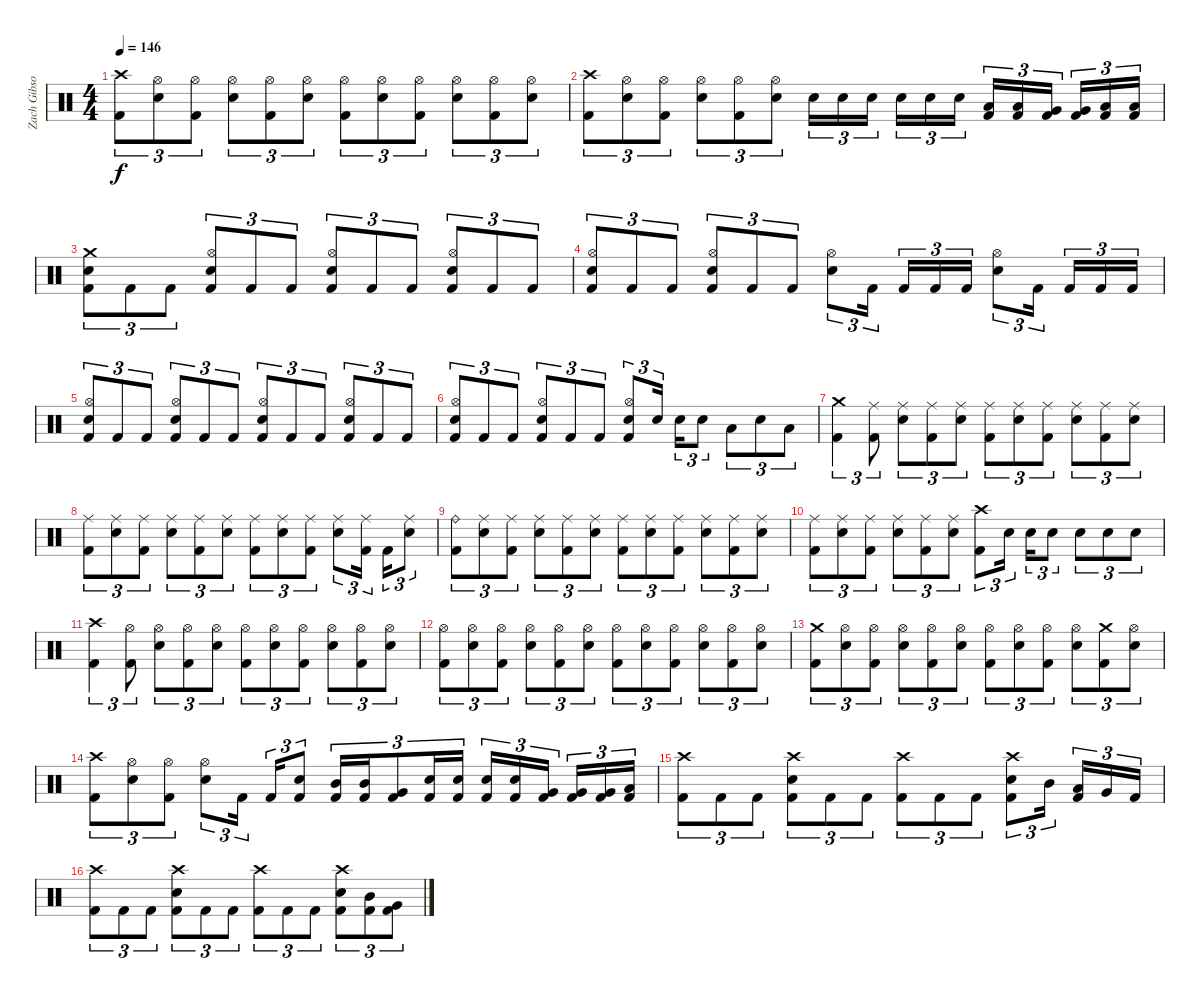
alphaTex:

\track ("Zach Gibson (Drums)" "Zach Gibso") {instrument percussion}
\staff {score}
\articulation defaults
\ts (4 4)
\tempo 146
\clef neutral
\ks c
("Crash high (hit)" "Kick (hit) 2").8{tu (3 2) dy f} ("Hi-Hat (open)" "Snare (hit) 2").8{tu (3 2)} ("Hi-Hat (open)" "Kick (hit) 2").8{tu (3 2)} ("Hi-Hat (open)" "Snare (hit) 2").8{tu (3 2)} ("Hi-Hat (open)" "Kick (hit) 2").8{tu (3 2)} ("Hi-Hat (open)" "Snare (hit) 2").8{tu (3 2)} ("Hi-Hat (open)" "Kick (hit) 2").8{tu (3 2)} ("Hi-Hat (open)" "Snare (hit) 2").8{tu (3 2)} ("Hi-Hat (open)" "Kick (hit) 2").8{tu (3 2)} ("Hi-Hat (open)" "Snare (hit) 2").8{tu (3 2)} ("Hi-Hat (open)" "Kick (hit) 2").8{tu (3 2)} ("Hi-Hat (open)" "Snare (hit) 2").8{tu (3 2)} |
("Crash high (hit)" "Kick (hit) 2").8{tu (3 2)} ("Hi-Hat (open)" "Snare (hit) 2").8{tu (3 2)} ("Hi-Hat (open)" "Kick (hit) 2").8{tu (3 2)} ("Hi-Hat (open)" "Snare (hit) 2").8{tu (3 2)} ("Hi-Hat (open)" "Kick (hit) 2").8{tu (3 2)} ("Hi-Hat (open)" "Snare (hit) 2").8{tu (3 2)} "Snare (hit) 2".16{tu (3 2)} "Snare (hit) 2".16{tu (3 2)} "Snare (hit) 2".16{tu (3 2)} "Snare (hit) 2".16{tu (3 2)} "Snare (hit) 2".16{tu (3 2)} "Snare (hit) 2".16{tu (3 2)} ("Low Tom (hit)" "Kick (hit) 2").16{tu (3 2)} ("Low Tom (hit)" "Kick (hit) 2").16{tu (3 2)} ("Very Low Tom (hit)" "Kick (hit) 2").16{tu (3 2)} ("Very Low Tom (hit)" "Kick (hit) 2").16{tu (3 2)} ("Low Floor Tom (hit)" "Kick (hit) 2").16{tu (3 2)} ("Low Floor Tom (hit)" "Kick (hit) 2").16{tu (3 2)} |
("Crash medium (hit)" "Snare (hit) 2" "Kick (hit) 2").8{tu (3 2)} "Kick (hit) 2".8{tu (3 2)} "Kick (hit) 2".8{tu (3 2)} ("Hi-Hat (open)" "Snare (hit) 2" "Kick (hit) 2").8{tu (3 2)} "Kick (hit) 2".8{tu (3 2)} "Kick (hit) 2".8{tu (3 2)} ("Hi-Hat (open)" "Snare (hit) 2" "Kick (hit) 2").8{tu (3 2)} "Kick (hit) 2".8{tu (3 2)} "Kick (hit) 2".8{tu (3 2)} ("Hi-Hat (open)" "Snare (hit) 2" "Kick (hit) 2").8{tu (3 2)} "Kick (hit) 2".8{tu (3 2)} "Kick (hit) 2".8{tu (3 2)} |
("Hi-Hat (open)" "Snare (hit) 2" "Kick (hit) 2").8{tu (3 2)} "Kick (hit) 2".8{tu (3 2)} "Kick (hit) 2".8{tu (3 2)} ("Hi-Hat (open)" "Snare (hit) 2" "Kick (hit) 2").8{tu (3 2)} "Kick (hit) 2".8{tu (3 2)} "Kick (hit) 2".8{tu (3 2)} ("Hi-Hat (open)" "Snare (hit) 2").8{tu (3 2)} "Kick (hit) 2".16{tu (3 2)} "Kick (hit) 2".16{tu (3 2)} "Kick (hit) 2".16{tu (3 2)} "Kick (hit) 2".16{tu (3 2)} ("Hi-Hat (open)" "Snare (hit) 2").8{tu (3 2)} "Kick (hit) 2".16{tu (3 2)} "Kick (hit) 2".16{tu (3 2)} "Kick (hit) 2".16{tu (3 2)} "Kick (hit) 2".16{tu (3 2)} |
("Hi-Hat (open)" "Snare (hit) 2" "Kick (hit) 2").8{tu (3 2)} "Kick (hit) 2".8{tu (3 2)} "Kick (hit) 2".8{tu (3 2)} ("Hi-Hat (open)" "Snare (hit) 2" "Kick (hit) 2").8{tu (3 2)} "Kick (hit) 2".8{tu (3 2)} "Kick (hit) 2".8{tu (3 2)} ("Hi-Hat (open)" "Snare (hit) 2" "Kick (hit) 2").8{tu (3 2)} "Kick (hit) 2".8{tu (3 2)} "Kick (hit) 2".8{tu (3 2)} ("Hi-Hat (open)" "Snare (hit) 2" "Kick (hit) 2").8{tu (3 2)} "Kick (hit) 2".8{tu (3 2)} "Kick (hit) 2".8{tu (3 2)} |
("Hi-Hat (open)" "Snare (hit) 2" "Kick (hit) 2").8{tu (3 2)} "Kick (hit) 2".8{tu (3 2)} "Kick (hit) 2".8{tu (3 2)} ("Hi-Hat (open)" "Snare (hit) 2" "Kick (hit) 2").8{tu (3 2)} "Kick (hit) 2".8{tu (3 2)} "Kick (hit) 2".8{tu (3 2)} ("Hi-Hat (open)" "Snare (hit) 2" "Kick (hit) 2").8{tu (3 2)} "Snare (hit) 2".16{tu (3 2)} "Snare (hit) 2".16{tu (3 2)} "Snare (hit) 2".8{tu (3 2)} "Low Tom (hit)".8{tu (3 2)} "Snare (hit) 2".8{tu (3 2)} "Low Floor Tom (hit)".8{tu (3 2)} |
("Crash medium (hit)" "Kick (hit) 2").4{tu (3 2)} ("Ride (middle)" "Kick (hit) 2").8{tu (3 2)} ("Ride (middle)" "Snare (hit) 2").8{tu (3 2)} ("Ride (middle)" "Kick (hit) 2").8{tu (3 2)} ("Ride (middle)" "Snare (hit) 2").8{tu (3 2)} ("Ride (middle)" "Kick (hit) 2").8{tu (3 2)} ("Ride (middle)" "Snare (hit) 2").8{tu (3 2)} ("Ride (middle)" "Kick (hit) 2").8{tu (3 2)} ("Ride (middle)" "Snare (hit) 2").8{tu (3 2)} ("Ride (middle)" "Kick (hit) 2").8{tu (3 2)} ("Ride (middle)" "Snare (hit) 2").8{tu (3 2)} |
("Ride (middle)" "Kick (hit) 2").8{tu (3 2)} ("Ride (middle)" "Snare (hit) 2").8{tu (3 2)} ("Ride (middle)" "Kick (hit) 2").8{tu (3 2)} ("Ride (middle)" "Snare (hit) 2").8{tu (3 2)} ("Ride (middle)" "Kick (hit) 2").8{tu (3 2)} ("Ride (middle)" "Snare (hit) 2").8{tu (3 2)} ("Ride (middle)" "Kick (hit) 2").8{tu (3 2)} ("Ride (middle)" "Snare (hit) 2").8{tu (3 2)} ("Ride (middle)" "Kick (hit) 2").8{tu (3 2)} ("Ride (middle)" "Snare (hit) 2").8{tu (3 2)} ("Ride (middle)" "Kick (hit) 2").16{tu (3 2)} "Kick (hit) 2".16{tu (3 2)} ("Ride (middle)" "Snare (hit) 2").8{tu (3 2)} |
("Ride (bell)" "Kick (hit) 2").8{tu (3 2)} ("Ride (middle)" "Snare (hit) 2").8{tu (3 2)} ("Ride (middle)" "Kick (hit) 2").8{tu (3 2)} ("Ride (middle)" "Snare (hit) 2").8{tu (3 2)} ("Ride (middle)" "Kick (hit) 2").8{tu (3 2)} ("Ride (middle)" "Snare (hit) 2").8{tu (3 2)} ("Ride (middle)" "Kick (hit) 2").8{tu (3 2)} ("Ride (middle)" "Snare (hit) 2").8{tu (3 2)} ("Ride (middle)" "Kick (hit) 2").8{tu (3 2)} ("Ride (middle)" "Snare (hit) 2").8{tu (3 2)} ("Ride (middle)" "Kick (hit) 2").8{tu (3 2)} ("Ride (middle)" "Snare (hit) 2").8{tu (3 2)} |
("Ride (middle)" "Kick (hit) 2").8{tu (3 2)} ("Ride (middle)" "Snare (hit) 2").8{tu (3 2)} ("Ride (middle)" "Kick (hit) 2").8{tu (3 2)} ("Ride (middle)" "Snare (hit) 2").8{tu (3 2)} ("Ride (middle)" "Kick (hit) 2").8{tu (3 2)} ("Ride (middle)" "Snare (hit) 2").8{tu (3 2)} ("Crash high (hit)" "Kick (hit) 2").8{tu (3 2)} "Snare (hit) 2".16{tu (3 2)} "Snare (hit) 2".16{tu (3 2)} "Snare (hit) 2".8{tu (3 2)} "Snare (hit) 2".8{tu (3 2)} "Snare (hit) 2".8{tu (3 2)} "Snare (hit) 2".8{tu (3 2)} |
("Crash high (hit)" "Kick (hit) 2").4{tu (3 2)} ("Hi-Hat (open)" "Kick (hit) 2").8{tu (3 2)} ("Hi-Hat (open)" "Snare (hit) 2").8{tu (3 2)} ("Hi-Hat (open)" "Kick (hit) 2").8{tu (3 2)} ("Hi-Hat (open)" "Snare (hit) 2").8{tu (3 2)} ("Hi-Hat (open)" "Kick (hit) 2").8{tu (3 2)} ("Hi-Hat (open)" "Snare (hit) 2").8{tu (3 2)} ("Hi-Hat (open)" "Kick (hit) 2").8{tu (3 2)} ("Hi-Hat (open)" "Snare (hit) 2").8{tu (3 2)} ("Hi-Hat (open)" "Kick (hit) 2").8{tu (3 2)} ("Hi-Hat (open)" "Snare (hit) 2").8{tu (3 2)} |
("Hi-Hat (open)" "Kick (hit) 2").8{tu (3 2)} ("Hi-Hat (open)" "Snare (hit) 2").8{tu (3 2)} ("Hi-Hat (open)" "Kick (hit) 2").8{tu (3 2)} ("Hi-Hat (open)" "Snare (hit) 2").8{tu (3 2)} ("Hi-Hat (open)" "Kick (hit) 2").8{tu (3 2)} ("Hi-Hat (open)" "Snare (hit) 2").8{tu (3 2)} ("Hi-Hat (open)" "Kick (hit) 2").8{tu (3 2)} ("Hi-Hat (open)" "Snare (hit) 2").8{tu (3 2)} ("Hi-Hat (open)" "Kick (hit) 2").8{tu (3 2)} ("Hi-Hat (open)" "Snare (hit) 2").8{tu (3 2)} ("Hi-Hat (open)" "Kick (hit) 2").8{tu (3 2)} ("Hi-Hat (open)" "Snare (hit) 2").8{tu (3 2)} |
("Crash medium (hit)" "Kick (hit) 2").8{tu (3 2)} ("Hi-Hat (open)" "Snare (hit) 2").8{tu (3 2)} ("Hi-Hat (open)" "Kick (hit) 2").8{tu (3 2)} ("Hi-Hat (open)" "Snare (hit) 2").8{tu (3 2)} ("Hi-Hat (open)" "Kick (hit) 2").8{tu (3 2)} ("Hi-Hat (open)" "Snare (hit) 2").8{tu (3 2)} ("Hi-Hat (open)" "Kick (hit) 2").8{tu (3 2)} ("Hi-Hat (open)" "Snare (hit) 2").8{tu (3 2)} ("Hi-Hat (open)" "Kick (hit) 2").8{tu (3 2)} ("Hi-Hat (open)" "Snare (hit) 2").8{tu (3 2)} ("Crash medium (hit)" "Kick (hit) 2").8{tu (3 2)} ("Hi-Hat (open)" "Snare (hit) 2").8{tu (3 2)} |
("Crash high (hit)" "Kick (hit) 2").8{tu (3 2)} ("Hi-Hat (open)" "Snare (hit) 2").8{tu (3 2)} ("Hi-Hat (open)" "Kick (hit) 2").8{tu (3 2)} ("Hi-Hat (open)" "Snare (hit) 2").8{tu (3 2)} "Kick (hit) 2".16{tu (3 2)} "Kick (hit) 2".16{tu (3 2)} ("Kick (hit) 2" "Snare (hit) 2").8{tu (3 2)} ("Kick (hit) 2" "Mid Tom (hit)").16{tu (3 2)} ("Kick (hit) 2" "Mid Tom (hit)").16{tu (3 2)} ("Kick (hit) 2" "Very Low Tom (hit)").8{tu (3 2)} ("Kick (hit) 2" "Snare (hit) 2").16{tu (3 2)} ("Kick (hit) 2" "Snare (hit) 2").16{tu (3 2)} ("Kick (hit) 2" "Snare (hit) 2").16{tu (3 2)} ("Kick (hit) 2" "Snare (hit) 2").16{tu (3 2)} ("Kick (hit) 2" "Very Low Tom (hit)").16{tu (3 2)} ("Kick (hit) 2" "Very Low Tom (hit)").16{tu (3 2)} ("Kick (hit) 2" "Very Low Tom (hit)").16{tu (3 2)} ("Kick (hit) 2" "Low Floor Tom (hit)").16{tu (3 2)} |
("Crash high (hit)" "Kick (hit) 2").8{tu (3 2)} "Kick (hit) 2".8{tu (3 2)} "Kick (hit) 2".8{tu (3 2)} ("Crash high (hit)" "Snare (hit) 2" "Kick (hit) 2").8{tu (3 2)} "Kick (hit) 2".8{tu (3 2)} "Kick (hit) 2".8{tu (3 2)} ("Crash high (hit)" "Kick (hit) 2").8{tu (3 2)} "Kick (hit) 2".8{tu (3 2)} "Kick (hit) 2".8{tu (3 2)} ("Crash high (hit)" "Snare (hit) 2" "Kick (hit) 2").8{tu (3 2)} "Mid Tom (hit)".16{tu (3 2)} ("Low Tom (hit)" "Kick (hit) 2").16{tu (3 2)} "Very Low Tom (hit)".16{tu (3 2)} "Kick (hit) 2".16{tu (3 2)} |
("Crash high (hit)" "Kick (hit) 2").8{tu (3 2)} "Kick (hit) 2".8{tu (3 2)} "Kick (hit) 2".8{tu (3 2)} ("Crash high (hit)" "Snare (hit) 2" "Kick (hit) 2").8{tu (3 2)} "Kick (hit) 2".8{tu (3 2)} "Kick (hit) 2".8{tu (3 2)} ("Crash high (hit)" "Kick (hit) 2").8{tu (3 2)} "Kick (hit) 2".8{tu (3 2)} "Kick (hit) 2".8{tu (3 2)} ("Crash high (hit)" "Snare (hit) 2" "Kick (hit) 2").8{tu (3 2)} ("Mid Tom (hit)" "Kick (hit) 2").8{tu (3 2)} ("Very Low Tom (hit)" "Kick (hit) 2").8{tu (3 2)}
